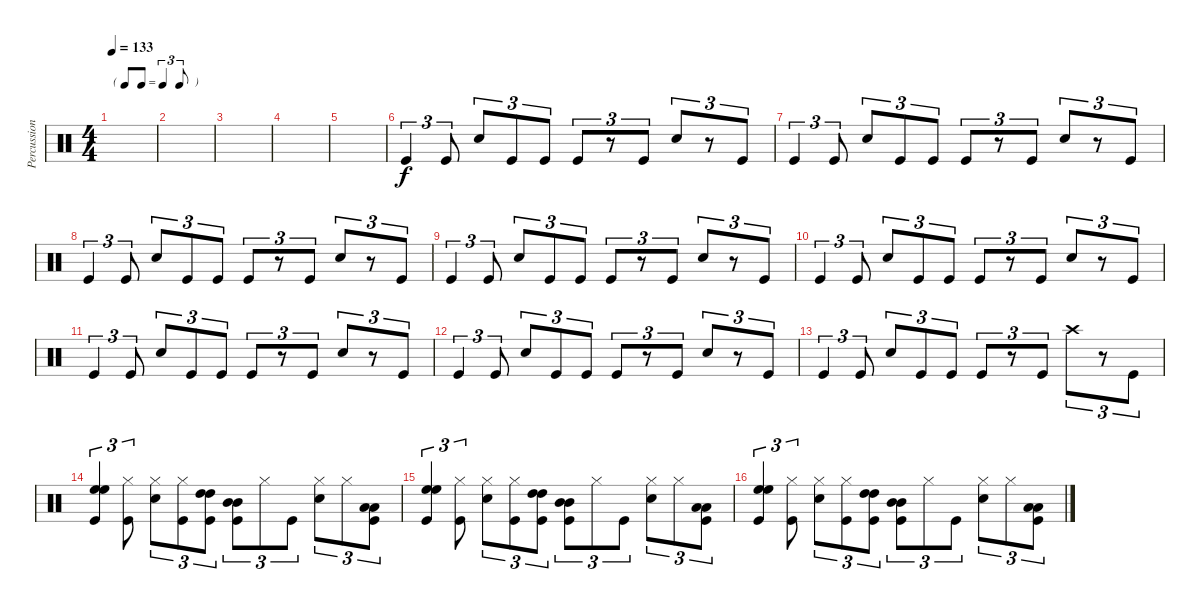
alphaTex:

\track ("Percussion" "Percussion") {instrument percussion}
\staff {score}
\articulation defaults
\ts (4 4)
\tf triplet8th
\tempo 133
\clef neutral
\ks c
|
|
|
|
|
"Kick (hit)".4{tu (3 2)} "Kick (hit)".8{tu (3 2)} "Snare (hit) 2".8{tu (3 2)} "Kick (hit)".8{tu (3 2)} "Kick (hit)".8{tu (3 2)} "Kick (hit)".8{tu (3 2)} r.8{tu (3 2)} "Kick (hit)".8{tu (3 2)} "Snare (hit) 2".8{tu (3 2)} r.8{tu (3 2)} "Kick (hit)".8{tu (3 2)} |
"Kick (hit)".4{tu (3 2)} "Kick (hit)".8{tu (3 2)} "Snare (hit) 2".8{tu (3 2)} "Kick (hit)".8{tu (3 2)} "Kick (hit)".8{tu (3 2)} "Kick (hit)".8{tu (3 2)} r.8{tu (3 2)} "Kick (hit)".8{tu (3 2)} "Snare (hit) 2".8{tu (3 2)} r.8{tu (3 2)} "Kick (hit)".8{tu (3 2)} |
"Kick (hit)".4{tu (3 2)} "Kick (hit)".8{tu (3 2)} "Snare (hit) 2".8{tu (3 2)} "Kick (hit)".8{tu (3 2)} "Kick (hit)".8{tu (3 2)} "Kick (hit)".8{tu (3 2)} r.8{tu (3 2)} "Kick (hit)".8{tu (3 2)} "Snare (hit) 2".8{tu (3 2)} r.8{tu (3 2)} "Kick (hit)".8{tu (3 2)} |
"Kick (hit)".4{tu (3 2)} "Kick (hit)".8{tu (3 2)} "Snare (hit) 2".8{tu (3 2)} "Kick (hit)".8{tu (3 2)} "Kick (hit)".8{tu (3 2)} "Kick (hit)".8{tu (3 2)} r.8{tu (3 2)} "Kick (hit)".8{tu (3 2)} "Snare (hit) 2".8{tu (3 2)} r.8{tu (3 2)} "Kick (hit)".8{tu (3 2)} |
"Kick (hit)".4{tu (3 2)} "Kick (hit)".8{tu (3 2)} "Snare (hit) 2".8{tu (3 2)} "Kick (hit)".8{tu (3 2)} "Kick (hit)".8{tu (3 2)} "Kick (hit)".8{tu (3 2)} r.8{tu (3 2)} "Kick (hit)".8{tu (3 2)} "Snare (hit) 2".8{tu (3 2)} r.8{tu (3 2)} "Kick (hit)".8{tu (3 2)} |
"Kick (hit)".4{tu (3 2)} "Kick (hit)".8{tu (3 2)} "Snare (hit) 2".8{tu (3 2)} "Kick (hit)".8{tu (3 2)} "Kick (hit)".8{tu (3 2)} "Kick (hit)".8{tu (3 2)} r.8{tu (3 2)} "Kick (hit)".8{tu (3 2)} "Snare (hit) 2".8{tu (3 2)} r.8{tu (3 2)} "Kick (hit)".8{tu (3 2)} |
"Kick (hit)".4{tu (3 2)} "Kick (hit)".8{tu (3 2)} "Snare (hit) 2".8{tu (3 2)} "Kick (hit)".8{tu (3 2)} "Kick (hit)".8{tu (3 2)} "Kick (hit)".8{tu (3 2)} r.8{tu (3 2)} "Kick (hit)".8{tu (3 2)} "Snare (hit) 2".8{tu (3 2)} r.8{tu (3 2)} "Kick (hit)".8{tu (3 2)} |
"Kick (hit)".4{tu (3 2)} "Kick (hit)".8{tu (3 2)} "Snare (hit) 2".8{tu (3 2)} "Kick (hit)".8{tu (3 2)} "Kick (hit)".8{tu (3 2)} "Kick (hit)".8{tu (3 2)} r.8{tu (3 2)} "Kick (hit)".8{tu (3 2)} "Crash high (hit)".8{tu (3 2)} r.8{tu (3 2)} "Kick (hit)".8{tu (3 2)} |
("Kick (hit)" "High Floor Tom (hit)" "High Floor Tom (hit)").4{tu (3 2)} ("Kick (hit)" "Hi-Hat (closed)").8{tu (3 2)} ("Snare (hit) 2" "Hi-Hat (closed)").8{tu (3 2)} ("Kick (hit)" "Hi-Hat (closed)").8{tu (3 2)} ("Kick (hit)" "High Tom (hit)" "High Tom (hit)").8{tu (3 2)} ("Kick (hit)" "Mid Tom (hit)" "Mid Tom (hit)").8{tu (3 2)} "Hi-Hat (closed)".8{tu (3 2)} "Kick (hit)".8{tu (3 2)} ("Snare (hit) 2" "Hi-Hat (closed)").8{tu (3 2)} "Hi-Hat (closed)".8{tu (3 2)} ("Kick (hit)" "Low Tom (hit)" "Low Tom (hit)").8{tu (3 2)} |
("Kick (hit)" "High Floor Tom (hit)" "High Floor Tom (hit)").4{tu (3 2)} ("Kick (hit)" "Hi-Hat (closed)").8{tu (3 2)} ("Snare (hit) 2" "Hi-Hat (closed)").8{tu (3 2)} ("Kick (hit)" "Hi-Hat (closed)").8{tu (3 2)} ("Kick (hit)" "High Tom (hit)" "High Tom (hit)").8{tu (3 2)} ("Kick (hit)" "Mid Tom (hit)" "Mid Tom (hit)").8{tu (3 2)} "Hi-Hat (closed)".8{tu (3 2)} "Kick (hit)".8{tu (3 2)} ("Snare (hit) 2" "Hi-Hat (closed)").8{tu (3 2)} "Hi-Hat (closed)".8{tu (3 2)} ("Kick (hit)" "Low Tom (hit)" "Low Tom (hit)").8{tu (3 2)} |
("Kick (hit)" "High Floor Tom (hit)" "High Floor Tom (hit)").4{tu (3 2)} ("Kick (hit)" "Hi-Hat (closed)").8{tu (3 2)} ("Snare (hit) 2" "Hi-Hat (closed)").8{tu (3 2)} ("Kick (hit)" "Hi-Hat (closed)").8{tu (3 2)} ("Kick (hit)" "High Tom (hit)" "High Tom (hit)").8{tu (3 2)} ("Kick (hit)" "Mid Tom (hit)" "Mid Tom (hit)").8{tu (3 2)} "Hi-Hat (closed)".8{tu (3 2)} "Kick (hit)".8{tu (3 2)} ("Snare (hit) 2" "Hi-Hat (closed)").8{tu (3 2)} "Hi-Hat (closed)".8{tu (3 2)} ("Kick (hit)" "Low Tom (hit)" "Low Tom (hit)").8{tu (3 2)}
